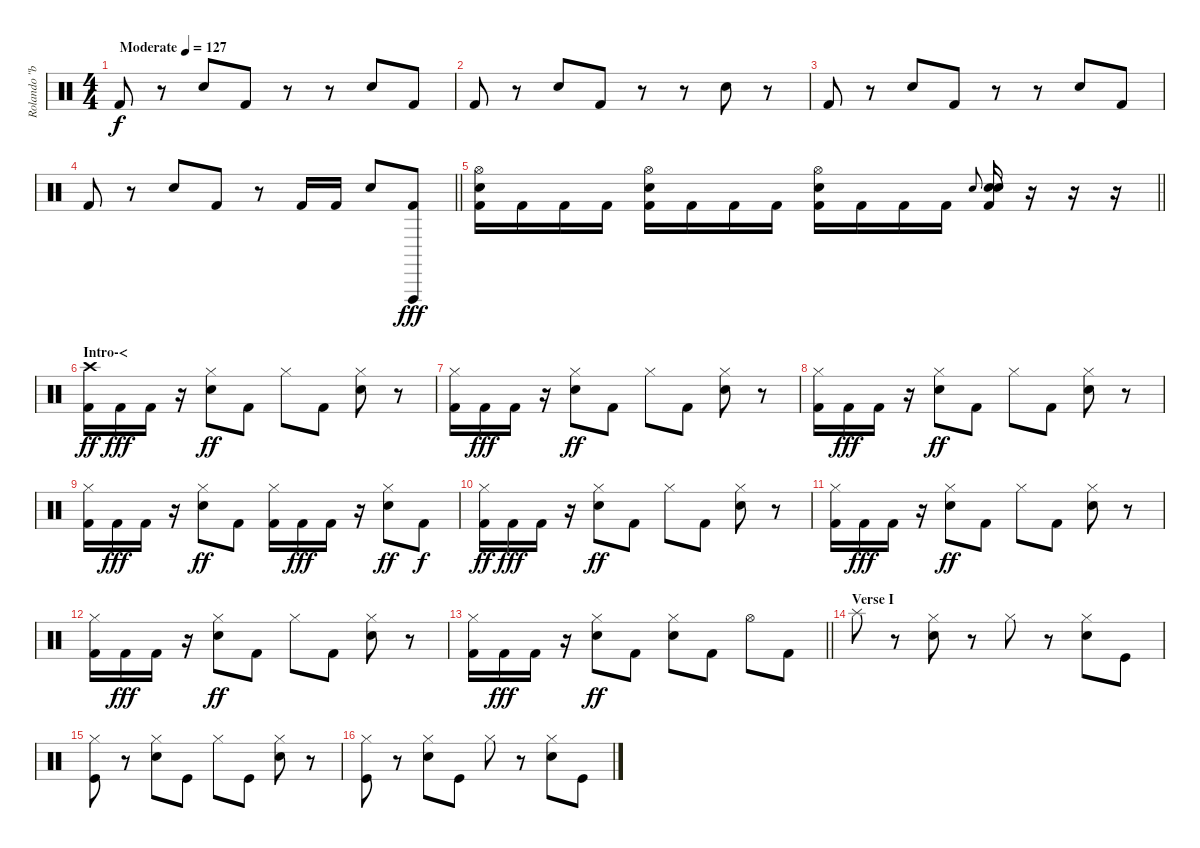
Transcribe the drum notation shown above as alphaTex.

\track ("Rolando \"bataka\"" "Rolando \"b") {instrument percussion}
\staff {score}
\articulation defaults
\ts (4 4)
\tempo (127 "Moderate")
\clef neutral
\ks c "Kick (hit) 2".8{dy f}
r.8 "Electric Snare (hit)".8 "Kick (hit) 2".8 r.8 r.8 "Electric Snare (hit)".8 "Kick (hit) 2".8 |
"Kick (hit) 2".8 r.8 "Electric Snare (hit)".8 "Kick (hit) 2".8 r.8 r.8 "Electric Snare (hit)".8 r.8 |
"Kick (hit) 2".8 r.8 "Electric Snare (hit)".8 "Kick (hit) 2".8 r.8 r.8 "Electric Snare (hit)".8 "Kick (hit) 2".8 |
\barLineRight lightlight "Kick (hit) 2".8
r.8 "Electric Snare (hit)".8 "Kick (hit) 2".8 r.8 "Kick (hit) 2".16 "Kick (hit) 2".16 "Electric Snare (hit)".8 ("Vibraslap (hit)" "Kick (hit) 2").8{dy fff} |
\barLineRight lightlight
("Kick (hit) 2" "Electric Snare (hit)" "Hi-Hat (open)").16 "Kick (hit) 2".16 "Kick (hit) 2".16 "Kick (hit) 2".16 ("Kick (hit) 2" "Electric Snare (hit)" "Hi-Hat (open)").16 "Kick (hit) 2".16 "Kick (hit) 2".16 "Kick (hit) 2".16 ("Kick (hit) 2" "Electric Snare (hit)" "Hi-Hat (open)").16 "Kick (hit) 2".16 "Kick (hit) 2".16 "Kick (hit) 2".16 "Electric Snare (hit)".8{gr onbeat} ("Kick (hit) 2" "Electric Snare (hit)" "Electric Snare (hit)").16 r.16 r.16 r.16 |
\section ("" "Intro-<")
("Kick (hit) 2" "Crash high (hit)").16{dy ff} "Kick (hit) 2".16{dy fff} "Kick (hit) 2".16 r.16 ("Electric Snare (hit)" "Hi-Hat (closed)").8{dy ff} "Kick (hit) 2".8 "Hi-Hat (closed)".8 "Kick (hit) 2".8 ("Electric Snare (hit)" "Hi-Hat (closed)").8 r.8 |
("Kick (hit) 2" "Hi-Hat (closed)").16 "Kick (hit) 2".16{dy fff} "Kick (hit) 2".16 r.16 ("Electric Snare (hit)" "Hi-Hat (closed)").8{dy ff} "Kick (hit) 2".8 "Hi-Hat (closed)".8 "Kick (hit) 2".8 ("Electric Snare (hit)" "Hi-Hat (closed)").8 r.8 |
("Kick (hit) 2" "Hi-Hat (closed)").16 "Kick (hit) 2".16{dy fff} "Kick (hit) 2".16 r.16 ("Electric Snare (hit)" "Hi-Hat (closed)").8{dy ff} "Kick (hit) 2".8 "Hi-Hat (closed)".8 "Kick (hit) 2".8 ("Electric Snare (hit)" "Hi-Hat (closed)").8 r.8 |
("Kick (hit) 2" "Hi-Hat (closed)").16 "Kick (hit) 2".16{dy fff} "Kick (hit) 2".16 r.16 ("Electric Snare (hit)" "Hi-Hat (closed)").8{dy ff} "Kick (hit) 2".8 ("Kick (hit) 2" "Hi-Hat (closed)").16 "Kick (hit) 2".16{dy fff} "Kick (hit) 2".16 r.16 ("Electric Snare (hit)" "Hi-Hat (closed)").8{dy ff} "Kick (hit) 2".8{dy f} |
("Kick (hit) 2" "Hi-Hat (closed)").16{dy ff} "Kick (hit) 2".16{dy fff} "Kick (hit) 2".16 r.16 ("Electric Snare (hit)" "Hi-Hat (closed)").8{dy ff} "Kick (hit) 2".8 "Hi-Hat (closed)".8 "Kick (hit) 2".8 ("Electric Snare (hit)" "Hi-Hat (closed)").8 r.8 |
("Kick (hit) 2" "Hi-Hat (closed)").16 "Kick (hit) 2".16{dy fff} "Kick (hit) 2".16 r.16 ("Electric Snare (hit)" "Hi-Hat (closed)").8{dy ff} "Kick (hit) 2".8 "Hi-Hat (closed)".8 "Kick (hit) 2".8 ("Electric Snare (hit)" "Hi-Hat (closed)").8 r.8 |
("Kick (hit) 2" "Hi-Hat (closed)").16 "Kick (hit) 2".16{dy fff} "Kick (hit) 2".16 r.16 ("Electric Snare (hit)" "Hi-Hat (closed)").8{dy ff} "Kick (hit) 2".8 "Hi-Hat (closed)".8 "Kick (hit) 2".8 ("Electric Snare (hit)" "Hi-Hat (closed)").8 r.8 |
\barLineRight lightlight
("Kick (hit) 2" "Hi-Hat (closed)").16 "Kick (hit) 2".16{dy fff} "Kick (hit) 2".16 r.16 ("Electric Snare (hit)" "Hi-Hat (closed)").8{dy ff} "Kick (hit) 2".8 ("Electric Snare (hit)" "Hi-Hat (closed)").8 "Kick (hit) 2".8 "Hi-Hat (open)".8 "Kick (hit) 2".8 |
\section ("" "Verse I")
"Splash (hit)".8 r.8 ("Electric Snare (hit)" "Hi-Hat (closed)").8 r.8 "Hi-Hat (closed)".8 r.8 ("Electric Snare (hit)" "Hi-Hat (closed)").8 "Kick (hit)".8 |
("Kick (hit)" "Hi-Hat (closed)").8 r.8 ("Electric Snare (hit)" "Hi-Hat (closed)").8 "Kick (hit)".8 "Hi-Hat (closed)".8 "Kick (hit)".8 ("Electric Snare (hit)" "Hi-Hat (closed)").8 r.8 |
("Kick (hit)" "Hi-Hat (closed)").8 r.8 ("Electric Snare (hit)" "Hi-Hat (closed)").8 "Kick (hit)".8 "Hi-Hat (closed)".8 r.8 ("Electric Snare (hit)" "Hi-Hat (closed)").8 "Kick (hit)".8
